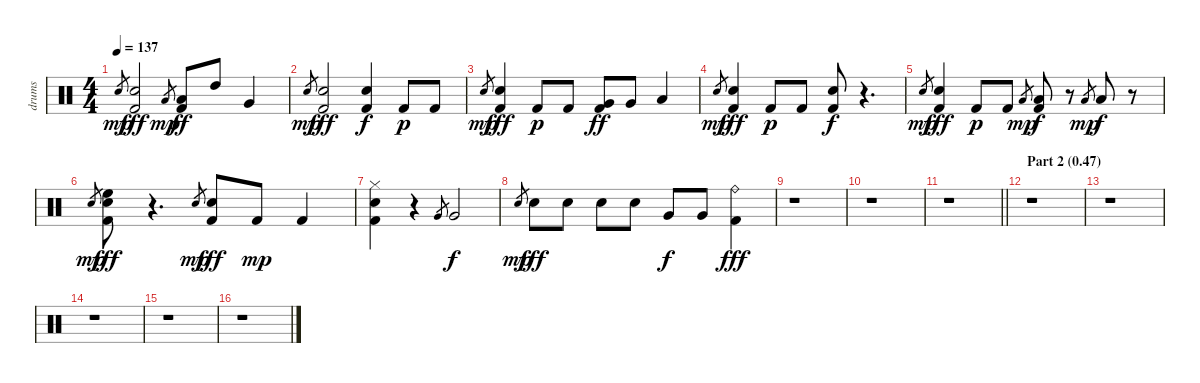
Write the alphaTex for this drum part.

\track ("drums" "drums") {instrument percussion}
\staff {score}
\articulation defaults
\ts (4 4)
\tempo 137
\clef neutral
\ks c "Electric Snare (hit)".8{gr dy mp}
("Kick (hit) 2" "Electric Snare (hit)").2{dy fff} "Low Floor Tom (hit)".8{gr dy mp} ("Kick (hit) 2" "Low Floor Tom (hit)").8{dy ff} "High Tom (hit)".8 "Very Low Tom (hit)".4 |
"Electric Snare (hit)".8{gr dy mp} ("Kick (hit) 2" "Electric Snare (hit)").2{dy fff} ("Snare (hit) 2" "Kick (hit) 2").4{dy f} "Kick (hit) 2".8{dy p} "Kick (hit) 2".8 |
"Electric Snare (hit)".8{gr dy mp} ("Kick (hit) 2" "Electric Snare (hit)").4{dy fff} "Kick (hit) 2".8{dy p} "Kick (hit) 2".8 ("Kick (hit) 2" "Very Low Tom (hit)").8{dy ff} "Very Low Tom (hit)".8 "Low Tom (hit)".4 |
"Electric Snare (hit)".8{gr dy mp} ("Kick (hit) 2" "Electric Snare (hit)").4{dy fff} "Kick (hit) 2".8{dy p} "Kick (hit) 2".8 ("Snare (hit) 2" "Kick (hit) 2").8{dy f} r.4{d} |
"Electric Snare (hit)".8{gr dy mp} ("Electric Snare (hit)" "Kick (hit) 2").4{dy fff} "Kick (hit) 2".8{dy p} "Kick (hit) 2".8 "Low Floor Tom (hit)".8{gr dy mp} ("Low Floor Tom (hit)" "Kick (hit) 2").8{dy f} r.8 "Low Tom (hit)".8{gr dy mp} "Low Tom (hit)".8{dy f} r.8 |
"Electric Snare (hit)".8{gr dy mp} ("High Floor Tom (hit)" "Kick (hit) 2" "Electric Snare (hit)").8{dy fff} r.4{d} "Snare (hit) 2".8{gr dy mp} ("Kick (hit) 2" "Snare (hit) 2").8{dy fff} "Kick (hit) 2".8{dy mp} "Kick (hit) 2".4 |
("Hi-Hat (closed)" "Snare (hit) 2" "Kick (hit) 2").4 r.4 "Very Low Tom (hit)".8{gr} "Very Low Tom (hit)".2{dy f} |
"Electric Snare (hit)".8{gr dy mp} "Electric Snare (hit)".8{dy fff} "Electric Snare (hit)".8 "Electric Snare (hit)".8 "Electric Snare (hit)".8 "Very Low Tom (hit)".8{dy f} "Very Low Tom (hit)".8 ("Kick (hit) 2" "Ride (bell)").4{dy fff volume 16} |
r.1 |
r.1 |
\barLineRight lightlight
r.1 |
\section ("" "Part 2 (0.47)")
r.1 |
r.1 |
r.1 |
r.1 |
r.1
